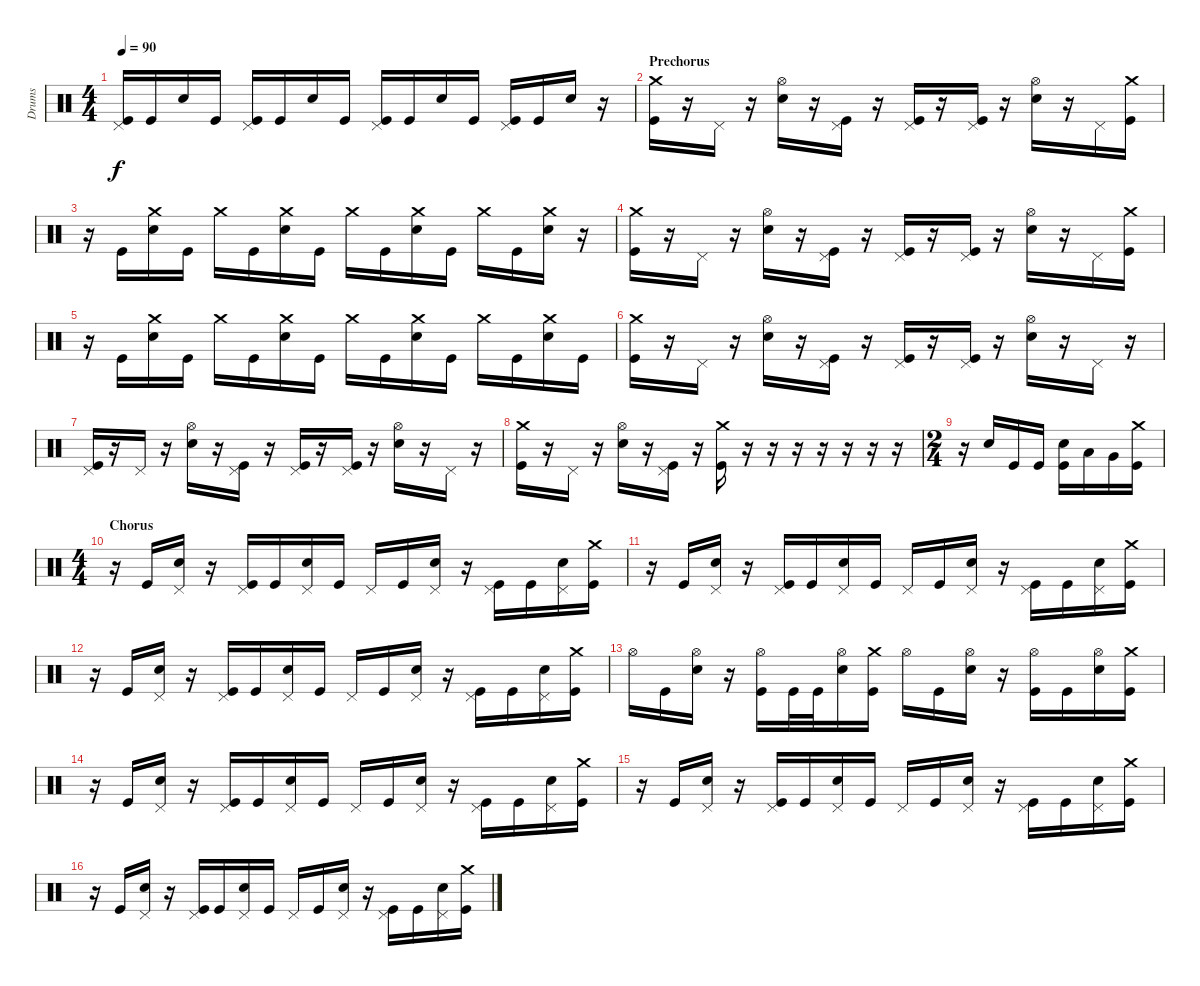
\track ("Drums" "Drums") {instrument percussion}
\staff {score}
\articulation defaults
\ts (4 4)
\tempo 90
\clef neutral
\ks c
("Pedal Hi-Hat (hit)" "Kick (hit)").16{dy f} "Kick (hit)".16 "Snare (hit) 2".16 "Kick (hit)".16 ("Pedal Hi-Hat (hit)" "Kick (hit)").16 "Kick (hit)".16 "Snare (hit) 2".16 "Kick (hit)".16 ("Pedal Hi-Hat (hit)" "Kick (hit)").16 "Kick (hit)".16 "Snare (hit) 2".16 "Kick (hit)".16 ("Pedal Hi-Hat (hit)" "Kick (hit)").16 "Kick (hit)".16 "Snare (hit) 2".16 r.16 |
\section ("" "Prechorus")
("Crash medium (hit)" "Kick (hit)").16 r.16 "Pedal Hi-Hat (hit)".16 r.16 ("Hi-Hat (open)" "Snare (hit) 2").16 r.16 ("Pedal Hi-Hat (hit)" "Kick (hit)").16 r.16 ("Pedal Hi-Hat (hit)" "Kick (hit)").16 r.16 ("Pedal Hi-Hat (hit)" "Kick (hit)").16 r.16 ("Hi-Hat (open)" "Snare (hit) 2").16 r.16 "Pedal Hi-Hat (hit)".16 ("Crash medium (hit)" "Kick (hit)").16 |
r.16 "Kick (hit)".16 ("Crash medium (hit)" "Snare (hit) 2").16 "Kick (hit)".16 "Crash medium (hit)".16 "Kick (hit)".16 ("Crash medium (hit)" "Snare (hit) 2").16 "Kick (hit)".16 "Crash medium (hit)".16 "Kick (hit)".16 ("Crash medium (hit)" "Snare (hit) 2").16 "Kick (hit)".16 "Crash medium (hit)".16 "Kick (hit)".16 ("Crash medium (hit)" "Snare (hit) 2").16 r.16 |
("Crash medium (hit)" "Kick (hit)").16 r.16 "Pedal Hi-Hat (hit)".16 r.16 ("Hi-Hat (open)" "Snare (hit) 2").16 r.16 ("Pedal Hi-Hat (hit)" "Kick (hit)").16 r.16 ("Pedal Hi-Hat (hit)" "Kick (hit)").16 r.16 ("Pedal Hi-Hat (hit)" "Kick (hit)").16 r.16 ("Hi-Hat (open)" "Snare (hit) 2").16 r.16 "Pedal Hi-Hat (hit)".16 ("Crash medium (hit)" "Kick (hit)").16 |
r.16 "Kick (hit)".16 ("Crash medium (hit)" "Snare (hit) 2").16 "Kick (hit)".16 "Crash medium (hit)".16 "Kick (hit)".16 ("Crash medium (hit)" "Snare (hit) 2").16 "Kick (hit)".16 "Crash medium (hit)".16 "Kick (hit)".16 ("Crash medium (hit)" "Snare (hit) 2").16 "Kick (hit)".16 "Crash medium (hit)".16 "Kick (hit)".16 ("Crash medium (hit)" "Snare (hit) 2").16 "Kick (hit)".16 |
("Crash medium (hit)" "Kick (hit)").16 r.16 "Pedal Hi-Hat (hit)".16 r.16 ("Hi-Hat (open)" "Snare (hit) 2").16 r.16 ("Pedal Hi-Hat (hit)" "Kick (hit)").16 r.16 ("Pedal Hi-Hat (hit)" "Kick (hit)").16 r.16 ("Pedal Hi-Hat (hit)" "Kick (hit)").16 r.16 ("Hi-Hat (open)" "Snare (hit) 2").16 r.16 "Pedal Hi-Hat (hit)".16 r.16 |
("Pedal Hi-Hat (hit)" "Kick (hit)").16 r.16 "Pedal Hi-Hat (hit)".16 r.16 ("Hi-Hat (open)" "Snare (hit) 2").16 r.16 ("Pedal Hi-Hat (hit)" "Kick (hit)").16 r.16 ("Pedal Hi-Hat (hit)" "Kick (hit)").16 r.16 ("Pedal Hi-Hat (hit)" "Kick (hit)").16 r.16 ("Hi-Hat (open)" "Snare (hit) 2").16 r.16 "Pedal Hi-Hat (hit)".16 r.16 |
("Crash medium (hit)" "Kick (hit)").16 r.16 "Pedal Hi-Hat (hit)".16 r.16 ("Hi-Hat (open)" "Snare (hit) 2").16 r.16 ("Pedal Hi-Hat (hit)" "Kick (hit)").16 r.16 ("Crash medium (hit)" "Kick (hit)").16 r.16 r.16 r.16 r.16 r.16 r.16 r.16 |
\ts (2 4)
r.16 "Snare (hit) 2".16 "Kick (hit)".16 "Kick (hit)".16 ("Snare (hit) 2" "Kick (hit)").16 "Low Tom (hit)".16 "Very Low Tom (hit)".16 ("Crash medium (hit)" "Kick (hit)").16 |
\ts (4 4)
\section ("" "Chorus")
r.16 "Kick (hit)".16 ("Pedal Hi-Hat (hit)" "Snare (hit) 2").16 r.16 ("Pedal Hi-Hat (hit)" "Kick (hit)").16 "Kick (hit)".16 ("Pedal Hi-Hat (hit)" "Snare (hit) 2").16 "Kick (hit)".16 "Pedal Hi-Hat (hit)".16 "Kick (hit)".16 ("Pedal Hi-Hat (hit)" "Snare (hit) 2").16 r.16 ("Pedal Hi-Hat (hit)" "Kick (hit)").16 "Kick (hit)".16 ("Pedal Hi-Hat (hit)" "Snare (hit) 2").16 ("Crash medium (hit)" "Kick (hit)").16 |
r.16 "Kick (hit)".16 ("Pedal Hi-Hat (hit)" "Snare (hit) 2").16 r.16 ("Pedal Hi-Hat (hit)" "Kick (hit)").16 "Kick (hit)".16 ("Pedal Hi-Hat (hit)" "Snare (hit) 2").16 "Kick (hit)".16 "Pedal Hi-Hat (hit)".16 "Kick (hit)".16 ("Pedal Hi-Hat (hit)" "Snare (hit) 2").16 r.16 ("Pedal Hi-Hat (hit)" "Kick (hit)").16 "Kick (hit)".16 ("Pedal Hi-Hat (hit)" "Snare (hit) 2").16 ("Crash medium (hit)" "Kick (hit)").16 |
r.16 "Kick (hit)".16 ("Pedal Hi-Hat (hit)" "Snare (hit) 2").16 r.16 ("Pedal Hi-Hat (hit)" "Kick (hit)").16 "Kick (hit)".16 ("Pedal Hi-Hat (hit)" "Snare (hit) 2").16 "Kick (hit)".16 "Pedal Hi-Hat (hit)".16 "Kick (hit)".16 ("Pedal Hi-Hat (hit)" "Snare (hit) 2").16 r.16 ("Pedal Hi-Hat (hit)" "Kick (hit)").16 "Kick (hit)".16 ("Pedal Hi-Hat (hit)" "Snare (hit) 2").16 ("Crash medium (hit)" "Kick (hit)").16 |
"Hi-Hat (open)".16 "Kick (hit)".16 ("Hi-Hat (open)" "Snare (hit) 2").16 r.16 ("Hi-Hat (open)" "Kick (hit)").16 "Kick (hit)".32 "Kick (hit)".32 ("Hi-Hat (open)" "Snare (hit) 2").16 ("Crash medium (hit)" "Kick (hit)").16 "Hi-Hat (open)".16 "Kick (hit)".16 ("Hi-Hat (open)" "Snare (hit) 2").16 r.16 ("Hi-Hat (open)" "Kick (hit)").16 "Kick (hit)".16 ("Hi-Hat (open)" "Snare (hit) 2").16 ("Crash medium (hit)" "Kick (hit)").16 |
r.16 "Kick (hit)".16 ("Pedal Hi-Hat (hit)" "Snare (hit) 2").16 r.16 ("Pedal Hi-Hat (hit)" "Kick (hit)").16 "Kick (hit)".16 ("Pedal Hi-Hat (hit)" "Snare (hit) 2").16 "Kick (hit)".16 "Pedal Hi-Hat (hit)".16 "Kick (hit)".16 ("Pedal Hi-Hat (hit)" "Snare (hit) 2").16 r.16 ("Pedal Hi-Hat (hit)" "Kick (hit)").16 "Kick (hit)".16 ("Pedal Hi-Hat (hit)" "Snare (hit) 2").16 ("Crash medium (hit)" "Kick (hit)").16 |
r.16 "Kick (hit)".16 ("Pedal Hi-Hat (hit)" "Snare (hit) 2").16 r.16 ("Pedal Hi-Hat (hit)" "Kick (hit)").16 "Kick (hit)".16 ("Pedal Hi-Hat (hit)" "Snare (hit) 2").16 "Kick (hit)".16 "Pedal Hi-Hat (hit)".16 "Kick (hit)".16 ("Pedal Hi-Hat (hit)" "Snare (hit) 2").16 r.16 ("Pedal Hi-Hat (hit)" "Kick (hit)").16 "Kick (hit)".16 ("Pedal Hi-Hat (hit)" "Snare (hit) 2").16 ("Crash medium (hit)" "Kick (hit)").16 |
r.16 "Kick (hit)".16 ("Pedal Hi-Hat (hit)" "Snare (hit) 2").16 r.16 ("Pedal Hi-Hat (hit)" "Kick (hit)").16 "Kick (hit)".16 ("Pedal Hi-Hat (hit)" "Snare (hit) 2").16 "Kick (hit)".16 "Pedal Hi-Hat (hit)".16 "Kick (hit)".16 ("Pedal Hi-Hat (hit)" "Snare (hit) 2").16 r.16 ("Pedal Hi-Hat (hit)" "Kick (hit)").16 "Kick (hit)".16 ("Pedal Hi-Hat (hit)" "Snare (hit) 2").16 ("Crash medium (hit)" "Kick (hit)").16
